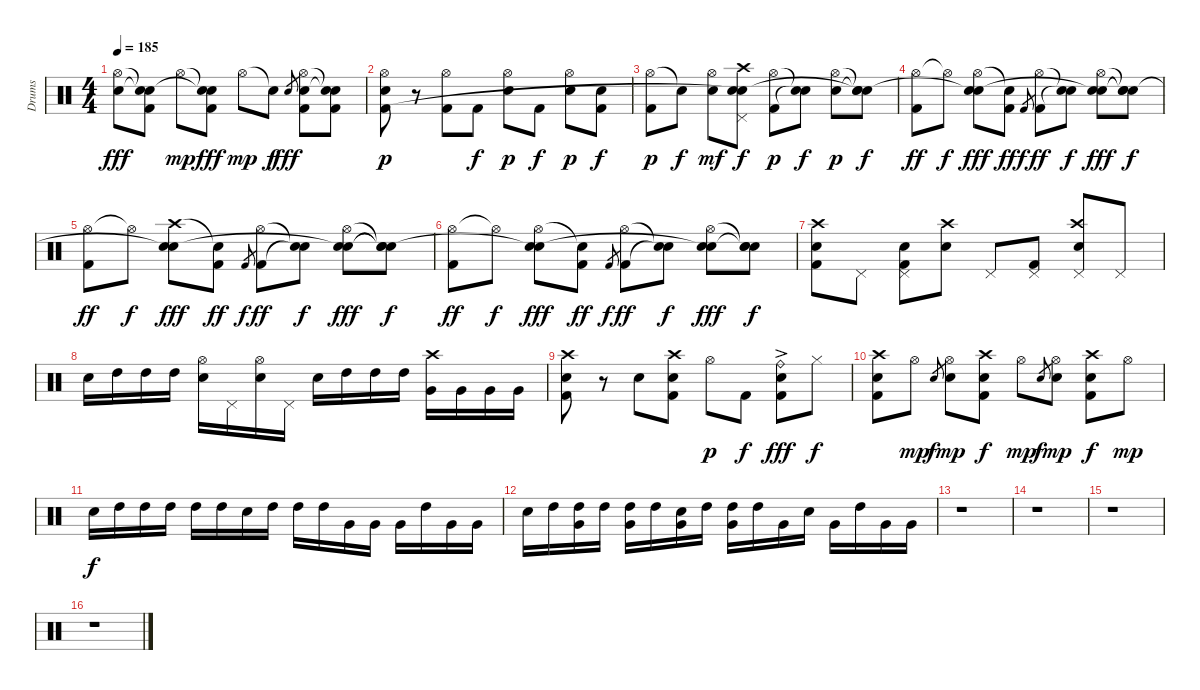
\track ("Drums" "Drums") {instrument percussion}
\staff {score}
\articulation defaults
\ts (4 4)
\tempo 185
\clef neutral
\ks c
("Hi-Hat (open)" "Electric Snare (hit)").8{dy fff} ("Snare (hit)"{t} "Snare (hit)"{t} "Kick (hit) 2").8 "Hi-Hat (open)".8{dy mp} ("Snare (hit)"{t} "Snare (hit)"{t} "Kick (hit) 2").8{dy fff} "Hi-Hat (open)".8{dy mp} "Snare (hit)"{t}.8{dy f} "Electric Snare (hit)".8{gr dy fff} ("Hi-Hat (open)" "Electric Snare (hit)" "Kick (hit) 2").8 ("Snare (hit)"{t} "Snare (hit)"{t} "Kick (hit) 2").8 |
("Hi-Hat (open)" "Electric Snare (hit)" "Kick (hit) 2").8{dy p} r.8 ("Hi-Hat (open)" "Kick (hit) 2").8 "Kick (hit) 2".8{dy f} ("Hi-Hat (open)" "Electric Snare (hit)").8{dy p} "Kick (hit) 2".8{dy f} ("Hi-Hat (open)" "Electric Snare (hit)").8{dy p} ("Electric Snare (hit)" "Kick (hit) 2").8{dy f} |
("Hi-Hat (open)" "Kick (hit) 2").8{dy p} "Snare (hit)"{t}.8{dy f} ("Hi-Hat (open)" "Electric Snare (hit)").8{dy mf} ("Crash high (hit)" "Pedal Hi-Hat (hit)" "Snare (hit)"{t} "Snare (hit)").8{dy f} ("Hi-Hat (open)" "Kick (hit) 2").8{dy p} ("Snare (hit)"{t} "Snare (hit)"{t}).8{dy f} ("Hi-Hat (open)" "Electric Snare (hit)").8{dy p} ("Snare (hit)"{t} "Snare (hit)"{t} "Snare (hit)"{t}).8{dy f} |
("Hi-Hat (open)" "Kick (hit) 2").8{dy ff} "Hi-Hat (open)"{t}.8{dy f} ("Hi-Hat (open)" "Electric Snare (hit)" "Snare (hit)"{t}).8{dy fff} ("Snare (hit)"{t} "Kick (hit) 2").8{dy ff} "Kick (hit) 2".8{gr dy f} ("Hi-Hat (open)" "Kick (hit) 2").8{dy ff} ("Snare (hit)"{t} "Snare (hit)"{t}).8{dy f} ("Hi-Hat (open)" "Electric Snare (hit)" "Snare (hit)"{t}).8{dy fff} ("Snare (hit)"{t} "Snare (hit)"{t} "Snare (hit)"{t}).8{dy f} |
("Hi-Hat (open)" "Kick (hit) 2").8{dy ff} "Hi-Hat (open)"{t}.8{dy f} ("Crash high (hit)" "Electric Snare (hit)" "Snare (hit)"{t}).8{dy fff} ("Snare (hit)"{t} "Kick (hit) 2").8{dy ff} "Kick (hit) 2".8{gr dy f} ("Hi-Hat (open)" "Kick (hit) 2").8{dy ff} ("Snare (hit)"{t} "Snare (hit)"{t}).8{dy f} ("Hi-Hat (open)" "Electric Snare (hit)" "Snare (hit)"{t}).8{dy fff} ("Snare (hit)"{t} "Snare (hit)"{t} "Snare (hit)"{t}).8{dy f} |
("Hi-Hat (open)" "Kick (hit) 2").8{dy ff} "Hi-Hat (open)"{t}.8{dy f} ("Hi-Hat (open)" "Electric Snare (hit)" "Snare (hit)"{t}).8{dy fff} ("Snare (hit)"{t} "Kick (hit) 2").8{dy ff} "Kick (hit) 2".8{gr dy f} ("Hi-Hat (open)" "Kick (hit) 2").8{dy ff} ("Snare (hit)"{t} "Snare (hit)"{t}).8{dy f} ("Hi-Hat (open)" "Electric Snare (hit)" "Snare (hit)"{t}).8{dy fff} ("Snare (hit)"{t} "Electric Snare (hit)" "Snare (hit)"{t}).8{dy f} |
("Crash high (hit)" "Electric Snare (hit)" "Kick (hit) 2").8 "Pedal Hi-Hat (hit)".8 ("Pedal Hi-Hat (hit)" "Electric Snare (hit)" "Kick (hit) 2").8 ("Crash high (hit)" "Electric Snare (hit)").8 "Pedal Hi-Hat (hit)".8 ("Pedal Hi-Hat (hit)" "Kick (hit) 2").8 ("Crash high (hit)" "Pedal Hi-Hat (hit)" "Electric Snare (hit)").8 "Pedal Hi-Hat (hit)".8 |
"Electric Snare (hit)".16 "High Tom (hit)".16 "High Tom (hit)".16 "High Tom (hit)".16 ("Hi-Hat (open)" "Electric Snare (hit)").16 "Pedal Hi-Hat (hit)".16 ("Hi-Hat (open)" "Electric Snare (hit)").16 "Pedal Hi-Hat (hit)".16 "Electric Snare (hit)".16 "High Tom (hit)".16 "High Tom (hit)".16 "High Tom (hit)".16 ("Crash high (hit)" "Very Low Tom (hit)").16 "Very Low Tom (hit)".16 "Very Low Tom (hit)".16 "Very Low Tom (hit)".16 |
("Crash high (hit)" "Electric Snare (hit)" "Kick (hit) 2").8 r.8 "Electric Snare (hit)".8 ("Crash high (hit)" "Electric Snare (hit)" "Kick (hit) 2").8 "Hi-Hat (open)".8{dy p} "Kick (hit) 2".8{dy f} ("Ride (bell)"{ac} "Electric Snare (hit)" "Kick (hit) 2").8{dy fff} "Hi-Hat (closed)".8{dy f} |
("Crash high (hit)" "Electric Snare (hit)" "Kick (hit) 2").8 "Hi-Hat (open)".8{dy mp} "Electric Snare (hit)".8{gr dy f} ("Hi-Hat (open)" "Electric Snare (hit)").8{dy mp} ("Crash high (hit)" "Electric Snare (hit)" "Kick (hit) 2").8{dy f} "Hi-Hat (open)".8{dy mp} "Electric Snare (hit)".8{gr dy f} ("Hi-Hat (open)" "Electric Snare (hit)").8{dy mp} ("Crash high (hit)" "Electric Snare (hit)" "Kick (hit) 2").8{dy f} "Hi-Hat (open)".8{dy mp} |
"Electric Snare (hit)".16{dy f} "High Tom (hit)".16 "High Tom (hit)".16 "High Tom (hit)".16 "High Tom (hit)".16 "High Tom (hit)".16 "Electric Snare (hit)".16 "High Tom (hit)".16 "High Tom (hit)".16 "High Tom (hit)".16 "Very Low Tom (hit)".16 "Very Low Tom (hit)".16 "Very Low Tom (hit)".16 "High Tom (hit)".16 "Very Low Tom (hit)".16 "Very Low Tom (hit)".16 |
"Electric Snare (hit)".16 "High Tom (hit)".16 ("High Tom (hit)" "Very Low Tom (hit)").16 "High Tom (hit)".16 ("High Tom (hit)" "Very Low Tom (hit)").16 "High Tom (hit)".16 ("Electric Snare (hit)" "Very Low Tom (hit)").16 "High Tom (hit)".16 ("High Tom (hit)" "Very Low Tom (hit)").16 "High Tom (hit)".16 "Very Low Tom (hit)".16 "Electric Snare (hit)".16 "Very Low Tom (hit)".16 "High Tom (hit)".16 "Very Low Tom (hit)".16 "Very Low Tom (hit)".16 |
r.1 |
r.1 |
r.1 |
r.1
